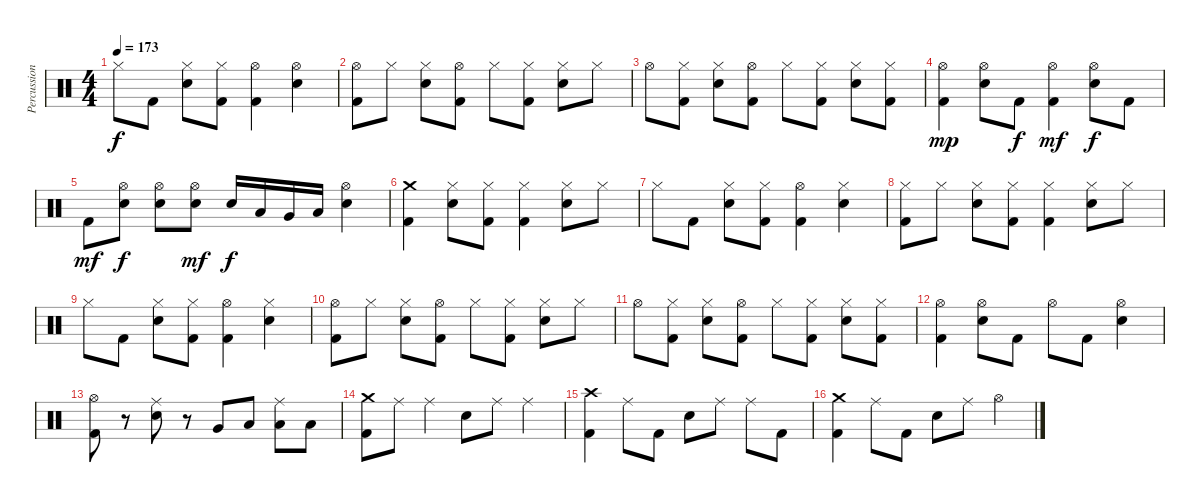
\track ("Percussion" "Percussion") {instrument percussion}
\staff {score}
\articulation defaults
\ts (4 4)
\tempo 173
\clef neutral
\ks c "Hi-Hat (closed)".8{dy f} "Kick (hit) 2".8
("Hi-Hat (closed)" "Electric Snare (hit)").8 ("Hi-Hat (closed)" "Kick (hit) 2").8 ("Hi-Hat (open)" "Kick (hit) 2").4 ("Hi-Hat (open)" "Electric Snare (hit)").4 |
("Hi-Hat (open)" "Kick (hit) 2").8 "Hi-Hat (closed)".8 ("Hi-Hat (closed)" "Electric Snare (hit)").8 ("Hi-Hat (open)" "Kick (hit) 2").8 "Hi-Hat (closed)".8 ("Hi-Hat (closed)" "Kick (hit) 2").8 ("Hi-Hat (closed)" "Electric Snare (hit)").8 "Hi-Hat (closed)".8 |
"Hi-Hat (open)".8 ("Hi-Hat (closed)" "Kick (hit) 2").8 ("Hi-Hat (closed)" "Electric Snare (hit)").8 ("Hi-Hat (open)" "Kick (hit) 2").8 "Hi-Hat (closed)".8 ("Hi-Hat (closed)" "Kick (hit) 2").8 ("Hi-Hat (closed)" "Electric Snare (hit)").8 ("Hi-Hat (closed)" "Kick (hit) 2").8 |
("Hi-Hat (open)" "Kick (hit) 2").4{dy mp} ("Hi-Hat (open)" "Electric Snare (hit)").8 "Kick (hit) 2".8{dy f} ("Hi-Hat (open)" "Kick (hit) 2").4{dy mf} ("Hi-Hat (open)" "Electric Snare (hit)").8{dy f} "Kick (hit) 2".8 |
"Kick (hit) 2".8{dy mf} ("Hi-Hat (open)" "Electric Snare (hit)").8{dy f} ("Hi-Hat (open)" "Electric Snare (hit)").8 ("Hi-Hat (open)" "Electric Snare (hit)").8{dy mf} "Electric Snare (hit)".16{dy f} "Low Tom (hit)".16 "Very Low Tom (hit)".16 "Low Floor Tom (hit)".16 ("Hi-Hat (open)" "Electric Snare (hit)").4 |
("Crash medium (hit)" "Kick (hit) 2").4 ("Hi-Hat (closed)" "Electric Snare (hit)").8 ("Hi-Hat (closed)" "Kick (hit) 2").8 ("Hi-Hat (closed)" "Kick (hit) 2").4 ("Hi-Hat (closed)" "Electric Snare (hit)").8 "Hi-Hat (closed)".8 |
"Hi-Hat (closed)".8 "Kick (hit) 2".8 ("Hi-Hat (closed)" "Electric Snare (hit)").8 ("Hi-Hat (closed)" "Kick (hit) 2").8 ("Hi-Hat (open)" "Kick (hit) 2").4 ("Hi-Hat (closed)" "Electric Snare (hit)").4 |
("Hi-Hat (closed)" "Kick (hit) 2").8 "Hi-Hat (closed)".8 ("Hi-Hat (closed)" "Electric Snare (hit)").8 ("Hi-Hat (closed)" "Kick (hit) 2").8 ("Hi-Hat (closed)" "Kick (hit) 2").4 ("Hi-Hat (closed)" "Electric Snare (hit)").8 "Hi-Hat (closed)".8 |
"Hi-Hat (closed)".8 "Kick (hit) 2".8 ("Hi-Hat (closed)" "Electric Snare (hit)").8 ("Hi-Hat (closed)" "Kick (hit) 2").8 ("Hi-Hat (open)" "Kick (hit) 2").4 ("Hi-Hat (closed)" "Electric Snare (hit)").4 |
("Hi-Hat (open)" "Kick (hit) 2").8 "Hi-Hat (closed)".8 ("Hi-Hat (closed)" "Electric Snare (hit)").8 ("Hi-Hat (open)" "Kick (hit) 2").8 "Hi-Hat (closed)".8 ("Hi-Hat (closed)" "Kick (hit) 2").8 ("Hi-Hat (closed)" "Electric Snare (hit)").8 "Hi-Hat (closed)".8 |
"Hi-Hat (open)".8 ("Hi-Hat (closed)" "Kick (hit) 2").8 ("Hi-Hat (closed)" "Electric Snare (hit)").8 ("Hi-Hat (open)" "Kick (hit) 2").8 "Hi-Hat (closed)".8 ("Hi-Hat (closed)" "Kick (hit) 2").8 ("Hi-Hat (closed)" "Electric Snare (hit)").8 ("Hi-Hat (closed)" "Kick (hit) 2").8 |
("Hi-Hat (open)" "Kick (hit) 2").4 ("Hi-Hat (open)" "Electric Snare (hit)").8 "Kick (hit) 2".8 "Hi-Hat (open)".8 "Kick (hit) 2".8 ("Hi-Hat (open)" "Electric Snare (hit)").4 |
("Hi-Hat (open)" "Kick (hit) 2").8 r.8 ("Ride (middle)" "Electric Snare (hit)").8 r.8 "Very Low Tom (hit)".8 "Low Tom (hit)".8 ("Ride (middle)" "Low Tom (hit)").8 "Low Floor Tom (hit)".8 |
("Crash medium (hit)" "Kick (hit) 2").8 "Ride (middle)".8 "Ride (middle)".4 "Electric Snare (hit)".8 "Ride (middle)".8 "Ride (middle)".4 |
("Crash high (hit)" "Kick (hit) 2").4 "Ride (middle)".8 "Kick (hit) 2".8 "Electric Snare (hit)".8 "Ride (middle)".8 "Ride (middle)".8 "Kick (hit) 2".8 |
("Crash medium (hit)" "Kick (hit) 2").4 "Ride (middle)".8 "Kick (hit) 2".8 "Electric Snare (hit)".8 "Ride (middle)".8 "Hi-Hat (open)".4
